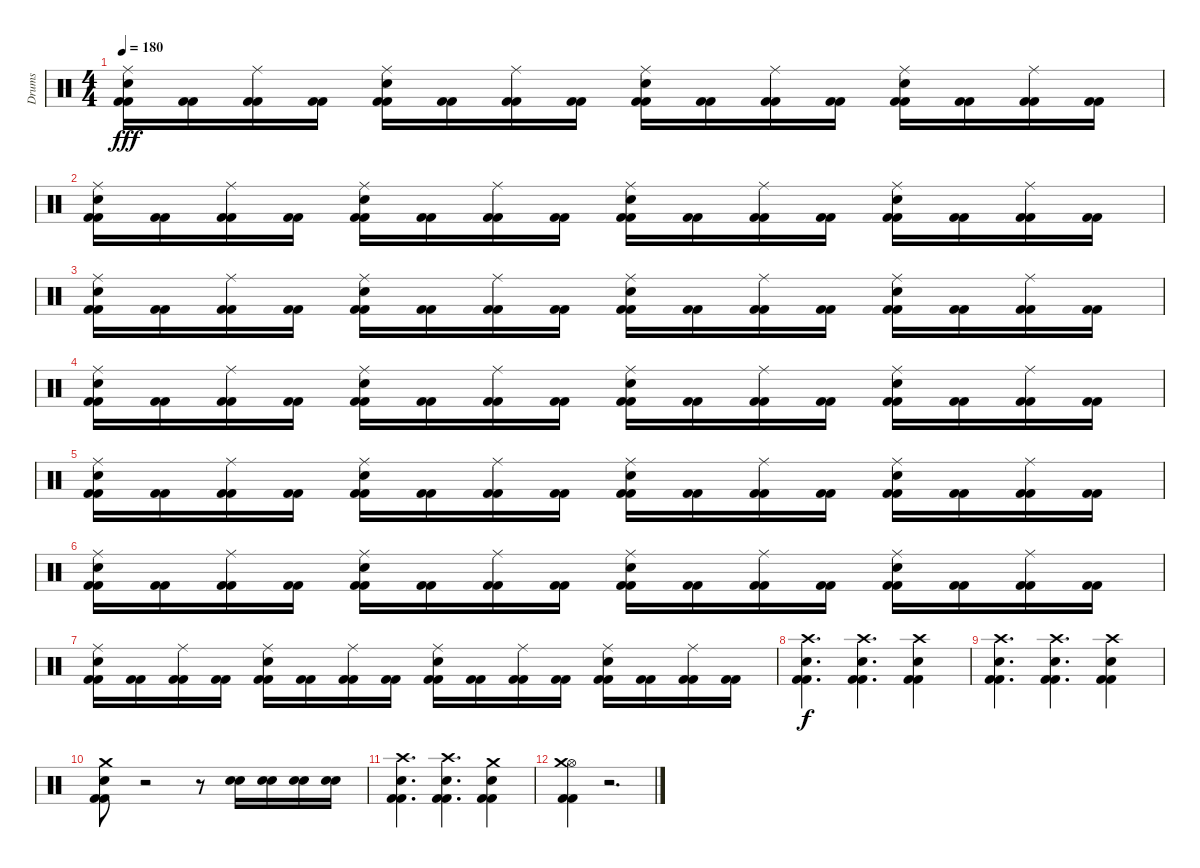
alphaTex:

\track ("Drums" "Drums") {instrument percussion}
\staff {score}
\articulation defaults
\ts (4 4)
\tempo 180
\clef neutral
\ks c
("Kick (hit) 2" "Kick (hit) 2" "Electric Snare (hit)" "Ride (middle)").16{dy fff} ("Kick (hit) 2" "Kick (hit) 2").16 ("Kick (hit) 2" "Kick (hit) 2" "Ride (middle)").16 ("Kick (hit) 2" "Kick (hit) 2").16 ("Kick (hit) 2" "Kick (hit) 2" "Electric Snare (hit)" "Ride (middle)").16 ("Kick (hit) 2" "Kick (hit) 2").16 ("Kick (hit) 2" "Kick (hit) 2" "Ride (middle)").16 ("Kick (hit) 2" "Kick (hit) 2").16 ("Kick (hit) 2" "Kick (hit) 2" "Electric Snare (hit)" "Ride (middle)").16 ("Kick (hit) 2" "Kick (hit) 2").16 ("Kick (hit) 2" "Kick (hit) 2" "Ride (middle)").16 ("Kick (hit) 2" "Kick (hit) 2").16 ("Kick (hit) 2" "Kick (hit) 2" "Electric Snare (hit)" "Ride (middle)").16 ("Kick (hit) 2" "Kick (hit) 2").16 ("Kick (hit) 2" "Kick (hit) 2" "Ride (middle)").16 ("Kick (hit) 2" "Kick (hit) 2").16 |
("Kick (hit) 2" "Kick (hit) 2" "Electric Snare (hit)" "Ride (middle)").16 ("Kick (hit) 2" "Kick (hit) 2").16 ("Kick (hit) 2" "Kick (hit) 2" "Ride (middle)").16 ("Kick (hit) 2" "Kick (hit) 2").16 ("Kick (hit) 2" "Kick (hit) 2" "Electric Snare (hit)" "Ride (middle)").16 ("Kick (hit) 2" "Kick (hit) 2").16 ("Kick (hit) 2" "Kick (hit) 2" "Ride (middle)").16 ("Kick (hit) 2" "Kick (hit) 2").16 ("Kick (hit) 2" "Kick (hit) 2" "Electric Snare (hit)" "Ride (middle)").16 ("Kick (hit) 2" "Kick (hit) 2").16 ("Kick (hit) 2" "Kick (hit) 2" "Ride (middle)").16 ("Kick (hit) 2" "Kick (hit) 2").16 ("Kick (hit) 2" "Kick (hit) 2" "Electric Snare (hit)" "Ride (middle)").16 ("Kick (hit) 2" "Kick (hit) 2").16 ("Kick (hit) 2" "Kick (hit) 2" "Ride (middle)").16 ("Kick (hit) 2" "Kick (hit) 2").16 |
("Kick (hit) 2" "Kick (hit) 2" "Electric Snare (hit)" "Ride (middle)").16 ("Kick (hit) 2" "Kick (hit) 2").16 ("Kick (hit) 2" "Kick (hit) 2" "Ride (middle)").16 ("Kick (hit) 2" "Kick (hit) 2").16 ("Kick (hit) 2" "Kick (hit) 2" "Electric Snare (hit)" "Ride (middle)").16 ("Kick (hit) 2" "Kick (hit) 2").16 ("Kick (hit) 2" "Kick (hit) 2" "Ride (middle)").16 ("Kick (hit) 2" "Kick (hit) 2").16 ("Kick (hit) 2" "Kick (hit) 2" "Electric Snare (hit)" "Ride (middle)").16 ("Kick (hit) 2" "Kick (hit) 2").16 ("Kick (hit) 2" "Kick (hit) 2" "Ride (middle)").16 ("Kick (hit) 2" "Kick (hit) 2").16 ("Kick (hit) 2" "Kick (hit) 2" "Electric Snare (hit)" "Ride (middle)").16 ("Kick (hit) 2" "Kick (hit) 2").16 ("Kick (hit) 2" "Kick (hit) 2" "Ride (middle)").16 ("Kick (hit) 2" "Kick (hit) 2").16 |
("Kick (hit) 2" "Kick (hit) 2" "Electric Snare (hit)" "Ride (middle)").16 ("Kick (hit) 2" "Kick (hit) 2").16 ("Kick (hit) 2" "Kick (hit) 2" "Ride (middle)").16 ("Kick (hit) 2" "Kick (hit) 2").16 ("Kick (hit) 2" "Kick (hit) 2" "Electric Snare (hit)" "Ride (middle)").16 ("Kick (hit) 2" "Kick (hit) 2").16 ("Kick (hit) 2" "Kick (hit) 2" "Ride (middle)").16 ("Kick (hit) 2" "Kick (hit) 2").16 ("Kick (hit) 2" "Kick (hit) 2" "Electric Snare (hit)" "Ride (middle)").16 ("Kick (hit) 2" "Kick (hit) 2").16 ("Kick (hit) 2" "Kick (hit) 2" "Ride (middle)").16 ("Kick (hit) 2" "Kick (hit) 2").16 ("Kick (hit) 2" "Kick (hit) 2" "Electric Snare (hit)" "Ride (middle)").16 ("Kick (hit) 2" "Kick (hit) 2").16 ("Kick (hit) 2" "Kick (hit) 2" "Ride (middle)").16 ("Kick (hit) 2" "Kick (hit) 2").16 |
("Kick (hit) 2" "Kick (hit) 2" "Electric Snare (hit)" "Ride (middle)").16 ("Kick (hit) 2" "Kick (hit) 2").16 ("Kick (hit) 2" "Kick (hit) 2" "Ride (middle)").16 ("Kick (hit) 2" "Kick (hit) 2").16 ("Kick (hit) 2" "Kick (hit) 2" "Electric Snare (hit)" "Ride (middle)").16 ("Kick (hit) 2" "Kick (hit) 2").16 ("Kick (hit) 2" "Kick (hit) 2" "Ride (middle)").16 ("Kick (hit) 2" "Kick (hit) 2").16 ("Kick (hit) 2" "Kick (hit) 2" "Electric Snare (hit)" "Ride (middle)").16 ("Kick (hit) 2" "Kick (hit) 2").16 ("Kick (hit) 2" "Kick (hit) 2" "Ride (middle)").16 ("Kick (hit) 2" "Kick (hit) 2").16 ("Kick (hit) 2" "Kick (hit) 2" "Electric Snare (hit)" "Ride (middle)").16 ("Kick (hit) 2" "Kick (hit) 2").16 ("Kick (hit) 2" "Kick (hit) 2" "Ride (middle)").16 ("Kick (hit) 2" "Kick (hit) 2").16 |
("Kick (hit) 2" "Kick (hit) 2" "Electric Snare (hit)" "Ride (middle)").16 ("Kick (hit) 2" "Kick (hit) 2").16 ("Kick (hit) 2" "Kick (hit) 2" "Ride (middle)").16 ("Kick (hit) 2" "Kick (hit) 2").16 ("Kick (hit) 2" "Kick (hit) 2" "Electric Snare (hit)" "Ride (middle)").16 ("Kick (hit) 2" "Kick (hit) 2").16 ("Kick (hit) 2" "Kick (hit) 2" "Ride (middle)").16 ("Kick (hit) 2" "Kick (hit) 2").16 ("Kick (hit) 2" "Kick (hit) 2" "Electric Snare (hit)" "Ride (middle)").16 ("Kick (hit) 2" "Kick (hit) 2").16 ("Kick (hit) 2" "Kick (hit) 2" "Ride (middle)").16 ("Kick (hit) 2" "Kick (hit) 2").16 ("Kick (hit) 2" "Kick (hit) 2" "Electric Snare (hit)" "Ride (middle)").16 ("Kick (hit) 2" "Kick (hit) 2").16 ("Kick (hit) 2" "Kick (hit) 2" "Ride (middle)").16 ("Kick (hit) 2" "Kick (hit) 2").16 |
("Kick (hit) 2" "Kick (hit) 2" "Electric Snare (hit)" "Ride (middle)").16 ("Kick (hit) 2" "Kick (hit) 2").16 ("Kick (hit) 2" "Kick (hit) 2" "Ride (middle)").16 ("Kick (hit) 2" "Kick (hit) 2").16 ("Kick (hit) 2" "Kick (hit) 2" "Electric Snare (hit)" "Ride (middle)").16 ("Kick (hit) 2" "Kick (hit) 2").16 ("Kick (hit) 2" "Kick (hit) 2" "Ride (middle)").16 ("Kick (hit) 2" "Kick (hit) 2").16 ("Kick (hit) 2" "Kick (hit) 2" "Electric Snare (hit)" "Ride (middle)").16 ("Kick (hit) 2" "Kick (hit) 2").16 ("Kick (hit) 2" "Kick (hit) 2" "Ride (middle)").16 ("Kick (hit) 2" "Kick (hit) 2").16 ("Kick (hit) 2" "Kick (hit) 2" "Electric Snare (hit)" "Ride (middle)").16 ("Kick (hit) 2" "Kick (hit) 2").16 ("Kick (hit) 2" "Kick (hit) 2" "Ride (middle)").16 ("Kick (hit) 2" "Kick (hit) 2").16 |
("Kick (hit) 2" "Kick (hit) 2" "Electric Snare (hit)" "Crash high (hit)").4{d dy f} ("Kick (hit) 2" "Kick (hit) 2" "Electric Snare (hit)" "Crash high (hit)").4{d} ("Kick (hit) 2" "Kick (hit) 2" "Electric Snare (hit)" "Crash high (hit)").4 |
("Kick (hit) 2" "Kick (hit) 2" "Electric Snare (hit)" "Crash high (hit)").4{d} ("Kick (hit) 2" "Kick (hit) 2" "Electric Snare (hit)" "Crash high (hit)").4{d} ("Kick (hit) 2" "Kick (hit) 2" "Electric Snare (hit)" "Crash high (hit)").4 |
("Kick (hit) 2" "Kick (hit) 2" "Electric Snare (hit)" "Crash medium (hit)").8 r.2 r.8 ("Snare (hit) 2" "Snare (hit) 2").16 ("Snare (hit) 2" "Snare (hit) 2").16 ("Snare (hit) 2" "Snare (hit) 2").16 ("Snare (hit) 2" "Snare (hit) 2").16 |
("Kick (hit) 2" "Kick (hit) 2" "Electric Snare (hit)" "Crash high (hit)").4{d} ("Kick (hit) 2" "Kick (hit) 2" "Electric Snare (hit)" "Crash high (hit)").4{d} ("Kick (hit) 2" "Kick (hit) 2" "Electric Snare (hit)" "Crash medium (hit)").4 |
("Kick (hit) 2" "Kick (hit) 2" "Hi-Hat (open)" "Crash medium (hit)").4 r.2{d}
